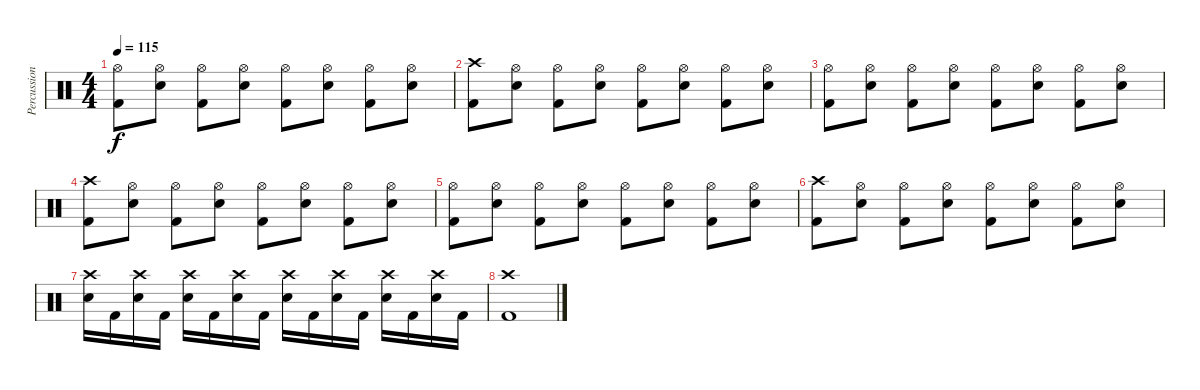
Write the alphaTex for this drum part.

\track ("Percussion" "Percussion") {instrument percussion}
\staff {score}
\articulation defaults
\ts (4 4)
\tempo 115
\clef neutral
\ks c
("Hi-Hat (open)" "Kick (hit) 2").8{dy f} ("Hi-Hat (open)" "Snare (hit) 2").8 ("Hi-Hat (open)" "Kick (hit) 2").8 ("Hi-Hat (open)" "Snare (hit) 2").8 ("Hi-Hat (open)" "Kick (hit) 2").8 ("Hi-Hat (open)" "Snare (hit) 2").8 ("Hi-Hat (open)" "Kick (hit) 2").8 ("Hi-Hat (open)" "Snare (hit) 2").8 |
("Crash high (hit)" "Kick (hit) 2").8 ("Hi-Hat (open)" "Snare (hit) 2").8 ("Hi-Hat (open)" "Kick (hit) 2").8 ("Hi-Hat (open)" "Snare (hit) 2").8 ("Hi-Hat (open)" "Kick (hit) 2").8 ("Hi-Hat (open)" "Snare (hit) 2").8 ("Hi-Hat (open)" "Kick (hit) 2").8 ("Hi-Hat (open)" "Snare (hit) 2").8 |
("Hi-Hat (open)" "Kick (hit) 2").8 ("Hi-Hat (open)" "Snare (hit) 2").8 ("Hi-Hat (open)" "Kick (hit) 2").8 ("Hi-Hat (open)" "Snare (hit) 2").8 ("Hi-Hat (open)" "Kick (hit) 2").8 ("Hi-Hat (open)" "Snare (hit) 2").8 ("Hi-Hat (open)" "Kick (hit) 2").8 ("Hi-Hat (open)" "Snare (hit) 2").8 |
("Crash high (hit)" "Kick (hit) 2").8 ("Hi-Hat (open)" "Snare (hit) 2").8 ("Hi-Hat (open)" "Kick (hit) 2").8 ("Hi-Hat (open)" "Snare (hit) 2").8 ("Hi-Hat (open)" "Kick (hit) 2").8 ("Hi-Hat (open)" "Snare (hit) 2").8 ("Hi-Hat (open)" "Kick (hit) 2").8 ("Hi-Hat (open)" "Snare (hit) 2").8 |
("Hi-Hat (open)" "Kick (hit) 2").8 ("Hi-Hat (open)" "Snare (hit) 2").8 ("Hi-Hat (open)" "Kick (hit) 2").8 ("Hi-Hat (open)" "Snare (hit) 2").8 ("Hi-Hat (open)" "Kick (hit) 2").8 ("Hi-Hat (open)" "Snare (hit) 2").8 ("Hi-Hat (open)" "Kick (hit) 2").8 ("Hi-Hat (open)" "Snare (hit) 2").8 |
("Crash high (hit)" "Kick (hit) 2").8 ("Hi-Hat (open)" "Snare (hit) 2").8 ("Hi-Hat (open)" "Kick (hit) 2").8 ("Hi-Hat (open)" "Snare (hit) 2").8 ("Hi-Hat (open)" "Kick (hit) 2").8 ("Hi-Hat (open)" "Snare (hit) 2").8 ("Hi-Hat (open)" "Kick (hit) 2").8 ("Hi-Hat (open)" "Snare (hit) 2").8 |
("Crash high (hit)" "Snare (hit) 2").16 "Kick (hit) 2".16 ("Crash high (hit)" "Snare (hit) 2").16 "Kick (hit) 2".16 ("Crash high (hit)" "Snare (hit) 2").16 "Kick (hit) 2".16 ("Crash high (hit)" "Snare (hit) 2").16 "Kick (hit) 2".16 ("Crash high (hit)" "Snare (hit) 2").16 "Kick (hit) 2".16 ("Crash high (hit)" "Snare (hit) 2").16 "Kick (hit) 2".16 ("Crash high (hit)" "Snare (hit) 2").16 "Kick (hit) 2".16 ("Crash high (hit)" "Snare (hit) 2").16 "Kick (hit) 2".16 |
("Crash high (hit)" "Kick (hit) 2").1
